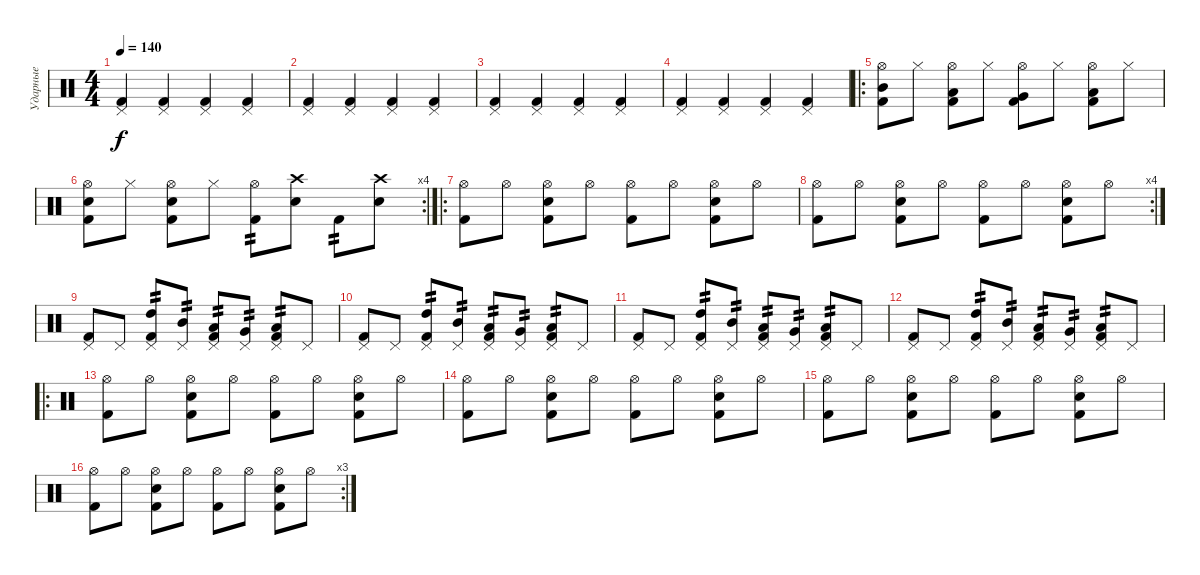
\track ("Ударные" "Ударные") {instrument percussion}
\staff {score}
\articulation defaults
\ts (4 4)
\tempo 140
\clef neutral
\ks c
("Pedal Hi-Hat (hit)" "Kick (hit) 2").4{dy f} ("Pedal Hi-Hat (hit)" "Kick (hit) 2").4 ("Pedal Hi-Hat (hit)" "Kick (hit) 2").4 ("Pedal Hi-Hat (hit)" "Kick (hit) 2").4 |
("Pedal Hi-Hat (hit)" "Kick (hit) 2").4 ("Pedal Hi-Hat (hit)" "Kick (hit) 2").4 ("Pedal Hi-Hat (hit)" "Kick (hit) 2").4 ("Pedal Hi-Hat (hit)" "Kick (hit) 2").4 |
("Pedal Hi-Hat (hit)" "Kick (hit) 2").4 ("Pedal Hi-Hat (hit)" "Kick (hit) 2").4 ("Pedal Hi-Hat (hit)" "Kick (hit) 2").4 ("Pedal Hi-Hat (hit)" "Kick (hit) 2").4 |
("Pedal Hi-Hat (hit)" "Kick (hit) 2").4 ("Pedal Hi-Hat (hit)" "Kick (hit) 2").4 ("Pedal Hi-Hat (hit)" "Kick (hit) 2").4 ("Pedal Hi-Hat (hit)" "Kick (hit) 2").4 |
\ro
("Hi-Hat (open)" "Mid Tom (hit)" "Kick (hit) 2").8 "Hi-Hat (closed)".8 ("Hi-Hat (open)" "Low Tom (hit)" "Kick (hit) 2").8 "Hi-Hat (closed)".8 ("Hi-Hat (open)" "Very Low Tom (hit)" "Kick (hit) 2").8 "Hi-Hat (closed)".8 ("Hi-Hat (open)" "Low Floor Tom (hit)" "Kick (hit) 2").8 "Hi-Hat (closed)".8 |
\rc 4
("Hi-Hat (open)" "Electric Snare (hit)" "Kick (hit) 2").8 "Hi-Hat (closed)".8 ("Hi-Hat (open)" "Snare (hit) 2" "Kick (hit) 2").8 "Hi-Hat (closed)".8 ("Hi-Hat (open)" "Kick (hit) 2").8{tp 2} ("Crash high (hit)" "Electric Snare (hit)").8 "Kick (hit) 2".8{tp 2} ("Crash high (hit)" "Electric Snare (hit)").8 |
\ro
("Hi-Hat (open)" "Kick (hit) 2").8 "Hi-Hat (open)".8 ("Hi-Hat (open)" "Electric Snare (hit)" "Kick (hit) 2").8 "Hi-Hat (open)".8 ("Hi-Hat (open)" "Kick (hit) 2").8 "Hi-Hat (open)".8 ("Hi-Hat (open)" "Electric Snare (hit)" "Kick (hit) 2").8 "Hi-Hat (open)".8 |
\rc 4
("Hi-Hat (open)" "Kick (hit) 2").8 "Hi-Hat (open)".8 ("Hi-Hat (open)" "Electric Snare (hit)" "Kick (hit) 2").8 "Hi-Hat (open)".8 ("Hi-Hat (open)" "Kick (hit) 2").8 "Hi-Hat (open)".8 ("Hi-Hat (open)" "Electric Snare (hit)" "Kick (hit) 2").8 "Hi-Hat (open)".8 |
("Pedal Hi-Hat (hit)" "Kick (hit) 2").8 "Pedal Hi-Hat (hit)".8 ("Pedal Hi-Hat (hit)" "High Tom (hit)" "Kick (hit) 2").8{tp 2} ("Pedal Hi-Hat (hit)" "Mid Tom (hit)").8{tp 2} ("Pedal Hi-Hat (hit)" "Low Tom (hit)" "Kick (hit) 2").8{tp 2} ("Pedal Hi-Hat (hit)" "Very Low Tom (hit)").8{tp 2} ("Pedal Hi-Hat (hit)" "Low Floor Tom (hit)" "Kick (hit) 2").8{tp 2} "Pedal Hi-Hat (hit)".8 |
("Pedal Hi-Hat (hit)" "Kick (hit) 2").8 "Pedal Hi-Hat (hit)".8 ("Pedal Hi-Hat (hit)" "High Tom (hit)" "Kick (hit) 2").8{tp 2} ("Pedal Hi-Hat (hit)" "Mid Tom (hit)").8{tp 2} ("Pedal Hi-Hat (hit)" "Low Tom (hit)" "Kick (hit) 2").8{tp 2} ("Pedal Hi-Hat (hit)" "Very Low Tom (hit)").8{tp 2} ("Pedal Hi-Hat (hit)" "Low Floor Tom (hit)" "Kick (hit) 2").8{tp 2} "Pedal Hi-Hat (hit)".8 |
("Pedal Hi-Hat (hit)" "Kick (hit) 2").8 "Pedal Hi-Hat (hit)".8 ("Pedal Hi-Hat (hit)" "High Tom (hit)" "Kick (hit) 2").8{tp 2} ("Pedal Hi-Hat (hit)" "Mid Tom (hit)").8{tp 2} ("Pedal Hi-Hat (hit)" "Low Tom (hit)" "Kick (hit) 2").8{tp 2} ("Pedal Hi-Hat (hit)" "Very Low Tom (hit)").8{tp 2} ("Pedal Hi-Hat (hit)" "Low Floor Tom (hit)" "Kick (hit) 2").8{tp 2} "Pedal Hi-Hat (hit)".8 |
("Pedal Hi-Hat (hit)" "Kick (hit) 2").8 "Pedal Hi-Hat (hit)".8 ("Pedal Hi-Hat (hit)" "High Tom (hit)" "Kick (hit) 2").8{tp 2} ("Pedal Hi-Hat (hit)" "Mid Tom (hit)").8{tp 2} ("Pedal Hi-Hat (hit)" "Low Tom (hit)" "Kick (hit) 2").8{tp 2} ("Pedal Hi-Hat (hit)" "Very Low Tom (hit)").8{tp 2} ("Pedal Hi-Hat (hit)" "Low Floor Tom (hit)" "Kick (hit) 2").8{tp 2} "Pedal Hi-Hat (hit)".8 |
\ro
("Hi-Hat (open)" "Kick (hit) 2").8 "Hi-Hat (open)".8 ("Hi-Hat (open)" "Electric Snare (hit)" "Kick (hit) 2").8 "Hi-Hat (open)".8 ("Hi-Hat (open)" "Kick (hit) 2").8 "Hi-Hat (open)".8 ("Hi-Hat (open)" "Electric Snare (hit)" "Kick (hit) 2").8 "Hi-Hat (open)".8 |
("Hi-Hat (open)" "Kick (hit) 2").8 "Hi-Hat (open)".8 ("Hi-Hat (open)" "Electric Snare (hit)" "Kick (hit) 2").8 "Hi-Hat (open)".8 ("Hi-Hat (open)" "Kick (hit) 2").8 "Hi-Hat (open)".8 ("Hi-Hat (open)" "Electric Snare (hit)" "Kick (hit) 2").8 "Hi-Hat (open)".8 |
("Hi-Hat (open)" "Kick (hit) 2").8 "Hi-Hat (open)".8 ("Hi-Hat (open)" "Electric Snare (hit)" "Kick (hit) 2").8 "Hi-Hat (open)".8 ("Hi-Hat (open)" "Kick (hit) 2").8 "Hi-Hat (open)".8 ("Hi-Hat (open)" "Electric Snare (hit)" "Kick (hit) 2").8 "Hi-Hat (open)".8 |
\rc 3
("Hi-Hat (open)" "Kick (hit) 2").8 "Hi-Hat (open)".8 ("Hi-Hat (open)" "Electric Snare (hit)" "Kick (hit) 2").8 "Hi-Hat (open)".8 ("Hi-Hat (open)" "Kick (hit) 2").8 "Hi-Hat (open)".8 ("Hi-Hat (open)" "Electric Snare (hit)" "Kick (hit) 2").8 "Hi-Hat (open)".8
